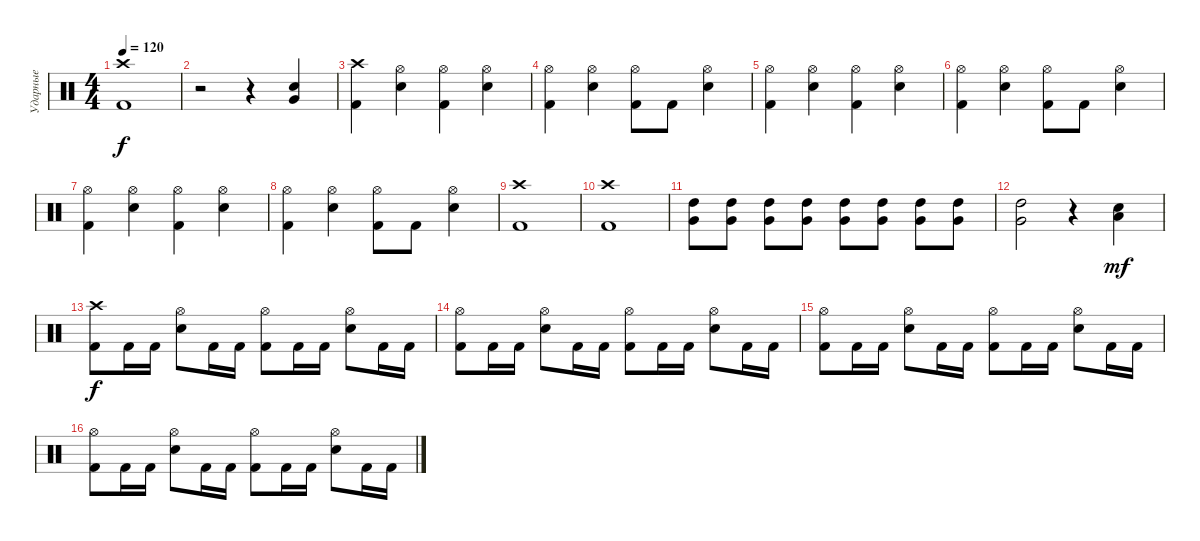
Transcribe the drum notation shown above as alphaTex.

\track ("Ударные" "Ударные") {instrument percussion}
\staff {score}
\articulation defaults
\ts (4 4)
\tempo 120
\clef neutral
\ks c
("Crash high (hit)" "Kick (hit) 2").1{dy f} |
r.2 r.4 ("Very Low Tom (hit)" "Electric Snare (hit)").4 |
("Crash high (hit)" "Kick (hit) 2").4 ("Hi-Hat (open)" "Snare (hit) 2").4 ("Hi-Hat (open)" "Kick (hit) 2").4 ("Hi-Hat (open)" "Snare (hit) 2").4 |
("Hi-Hat (open)" "Kick (hit) 2").4 ("Hi-Hat (open)" "Snare (hit) 2").4 ("Hi-Hat (open)" "Kick (hit) 2").8 "Kick (hit) 2".8 ("Hi-Hat (open)" "Snare (hit) 2").4 |
("Hi-Hat (open)" "Kick (hit) 2").4 ("Hi-Hat (open)" "Snare (hit) 2").4 ("Hi-Hat (open)" "Kick (hit) 2").4 ("Hi-Hat (open)" "Snare (hit) 2").4 |
("Hi-Hat (open)" "Kick (hit) 2").4 ("Hi-Hat (open)" "Snare (hit) 2").4 ("Hi-Hat (open)" "Kick (hit) 2").8 "Kick (hit) 2".8 ("Hi-Hat (open)" "Snare (hit) 2").4 |
("Hi-Hat (open)" "Kick (hit) 2").4 ("Hi-Hat (open)" "Snare (hit) 2").4 ("Hi-Hat (open)" "Kick (hit) 2").4 ("Hi-Hat (open)" "Snare (hit) 2").4 |
("Hi-Hat (open)" "Kick (hit) 2").4 ("Hi-Hat (open)" "Snare (hit) 2").4 ("Hi-Hat (open)" "Kick (hit) 2").8 "Kick (hit) 2".8 ("Hi-Hat (open)" "Snare (hit) 2").4 |
("Crash high (hit)" "Kick (hit) 2").1 |
("Crash high (hit)" "Kick (hit) 2").1 |
("High Tom (hit)" "Very Low Tom (hit)").8 ("High Tom (hit)" "Very Low Tom (hit)").8 ("High Tom (hit)" "Very Low Tom (hit)").8 ("High Tom (hit)" "Very Low Tom (hit)").8 ("High Tom (hit)" "Very Low Tom (hit)").8 ("High Tom (hit)" "Very Low Tom (hit)").8 ("High Tom (hit)" "Very Low Tom (hit)").8 ("High Tom (hit)" "Very Low Tom (hit)").8 |
("High Tom (hit)" "Very Low Tom (hit)").2 r.4 ("Electric Snare (hit)" "Low Tom (hit)").4{dy mf} |
("Kick (hit) 2" "Crash high (hit)").8{dy f} "Kick (hit) 2".16 "Kick (hit) 2".16 ("Snare (hit) 2" "Hi-Hat (open)").8 "Kick (hit) 2".16 "Kick (hit) 2".16 ("Kick (hit) 2" "Hi-Hat (open)").8 "Kick (hit) 2".16 "Kick (hit) 2".16 ("Snare (hit) 2" "Hi-Hat (open)").8 "Kick (hit) 2".16 "Kick (hit) 2".16 |
("Kick (hit) 2" "Hi-Hat (open)").8 "Kick (hit) 2".16 "Kick (hit) 2".16 ("Snare (hit) 2" "Hi-Hat (open)").8 "Kick (hit) 2".16 "Kick (hit) 2".16 ("Kick (hit) 2" "Hi-Hat (open)").8 "Kick (hit) 2".16 "Kick (hit) 2".16 ("Snare (hit) 2" "Hi-Hat (open)").8 "Kick (hit) 2".16 "Kick (hit) 2".16 |
("Kick (hit) 2" "Hi-Hat (open)").8 "Kick (hit) 2".16 "Kick (hit) 2".16 ("Snare (hit) 2" "Hi-Hat (open)").8 "Kick (hit) 2".16 "Kick (hit) 2".16 ("Kick (hit) 2" "Hi-Hat (open)").8 "Kick (hit) 2".16 "Kick (hit) 2".16 ("Snare (hit) 2" "Hi-Hat (open)").8 "Kick (hit) 2".16 "Kick (hit) 2".16 |
("Kick (hit) 2" "Hi-Hat (open)").8 "Kick (hit) 2".16 "Kick (hit) 2".16 ("Snare (hit) 2" "Hi-Hat (open)").8 "Kick (hit) 2".16 "Kick (hit) 2".16 ("Kick (hit) 2" "Hi-Hat (open)").8 "Kick (hit) 2".16 "Kick (hit) 2".16 ("Snare (hit) 2" "Hi-Hat (open)").8 "Kick (hit) 2".16 "Kick (hit) 2".16
